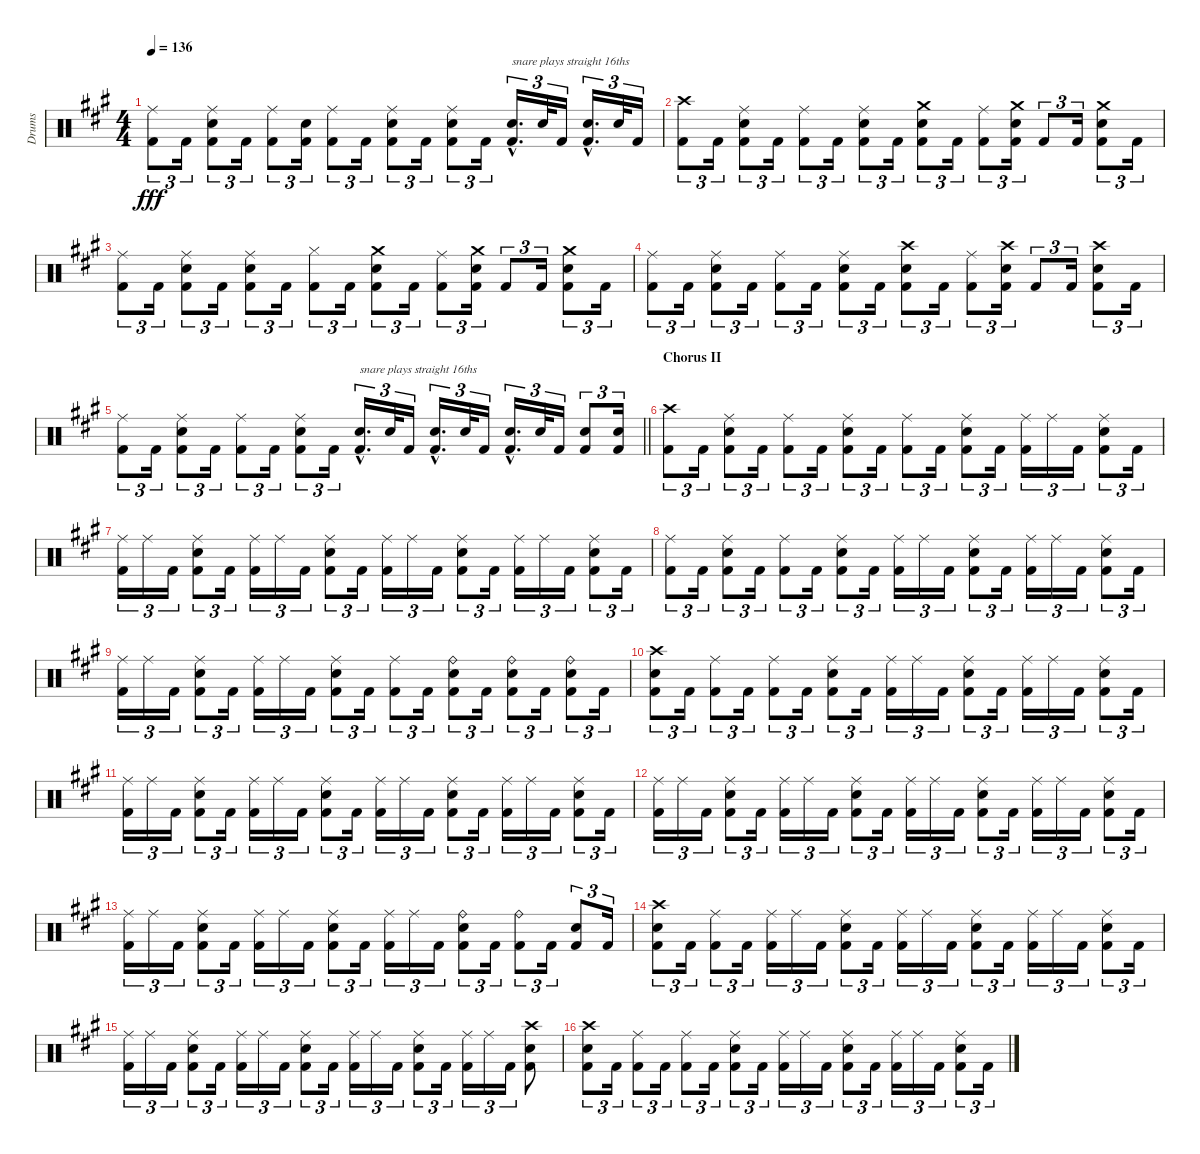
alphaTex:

\track ("Drums" "Drums") {instrument percussion}
\staff {score}
\articulation defaults
\ts (4 4)
\tempo 136
\clef neutral
\ks a
("Ride (middle)" "Kick (hit) 2").8{tu (3 2) dy fff} "Kick (hit) 2".16{tu (3 2)} ("Ride (middle)" "Snare (hit) 2" "Kick (hit) 2").8{tu (3 2)} "Kick (hit) 2".16{tu (3 2)} ("Ride (middle)" "Kick (hit) 2").8{tu (3 2)} ("Snare (hit) 2" "Kick (hit) 2").16{tu (3 2)} ("Ride (middle)" "Kick (hit) 2").8{tu (3 2)} "Kick (hit) 2".16{tu (3 2)} ("Ride (middle)" "Snare (hit) 2" "Kick (hit) 2").8{tu (3 2)} "Kick (hit) 2".16{tu (3 2)} ("Ride (middle)" "Snare (hit) 2" "Kick (hit) 2").8{tu (3 2)} "Kick (hit) 2".16{tu (3 2)} ("Snare (hit) 2"{hac} "Kick (hit) 2"{hac}).16{d tu (3 2) txt "snare plays straight 16ths"} "Snare (hit) 2".32{tu (3 2)} "Kick (hit) 2".16{tu (3 2)} ("Snare (hit) 2"{hac} "Kick (hit) 2"{hac}).16{d tu (3 2)} "Snare (hit) 2".32{tu (3 2)} "Kick (hit) 2".16{tu (3 2)} |
("Crash high (hit)" "Kick (hit) 2").8{tu (3 2)} "Kick (hit) 2".16{tu (3 2)} ("Ride (middle)" "Snare (hit) 2" "Kick (hit) 2").8{tu (3 2)} "Kick (hit) 2".16{tu (3 2)} ("Ride (middle)" "Kick (hit) 2").8{tu (3 2)} "Kick (hit) 2".16{tu (3 2)} ("Ride (middle)" "Snare (hit) 2" "Kick (hit) 2").8{tu (3 2)} "Kick (hit) 2".16{tu (3 2)} ("Crash medium (hit)" "Snare (hit) 2" "Kick (hit) 2").8{tu (3 2)} "Kick (hit) 2".16{tu (3 2)} ("Ride (middle)" "Kick (hit) 2").8{tu (3 2)} ("Crash medium (hit)" "Snare (hit) 2" "Kick (hit) 2").16{tu (3 2)} "Kick (hit) 2".8{tu (3 2)} "Kick (hit) 2".16{tu (3 2)} ("Crash medium (hit)" "Snare (hit) 2" "Kick (hit) 2").8{tu (3 2)} "Kick (hit) 2".16{tu (3 2)} |
("Ride (middle)" "Kick (hit) 2").8{tu (3 2)} "Kick (hit) 2".16{tu (3 2)} ("Ride (middle)" "Snare (hit) 2" "Kick (hit) 2").8{tu (3 2)} "Kick (hit) 2".16{tu (3 2)} ("Ride (middle)" "Snare (hit) 2" "Kick (hit) 2").8{tu (3 2)} "Kick (hit) 2".16{tu (3 2)} ("Hi-Hat (closed)" "Kick (hit) 2").8{tu (3 2)} "Kick (hit) 2".16{tu (3 2)} ("Crash medium (hit)" "Snare (hit) 2" "Kick (hit) 2").8{tu (3 2)} "Kick (hit) 2".16{tu (3 2)} ("Ride (middle)" "Kick (hit) 2").8{tu (3 2)} ("Crash medium (hit)" "Snare (hit) 2" "Kick (hit) 2").16{tu (3 2)} "Kick (hit) 2".8{tu (3 2)} "Kick (hit) 2".16{tu (3 2)} ("Crash medium (hit)" "Snare (hit) 2" "Kick (hit) 2").8{tu (3 2)} "Kick (hit) 2".16{tu (3 2)} |
("Ride (middle)" "Kick (hit) 2").8{tu (3 2)} "Kick (hit) 2".16{tu (3 2)} ("Ride (middle)" "Snare (hit) 2" "Kick (hit) 2").8{tu (3 2)} "Kick (hit) 2".16{tu (3 2)} ("Ride (middle)" "Kick (hit) 2").8{tu (3 2)} "Kick (hit) 2".16{tu (3 2)} ("Ride (middle)" "Snare (hit) 2" "Kick (hit) 2").8{tu (3 2)} "Kick (hit) 2".16{tu (3 2)} ("Crash high (hit)" "Snare (hit) 2" "Kick (hit) 2").8{tu (3 2)} "Kick (hit) 2".16{tu (3 2)} ("Ride (middle)" "Kick (hit) 2").8{tu (3 2)} ("Crash high (hit)" "Snare (hit) 2" "Kick (hit) 2").16{tu (3 2)} "Kick (hit) 2".8{tu (3 2)} "Kick (hit) 2".16{tu (3 2)} ("Crash high (hit)" "Snare (hit) 2" "Kick (hit) 2").8{tu (3 2)} "Kick (hit) 2".16{tu (3 2)} |
\barLineRight lightlight
("Ride (middle)" "Kick (hit) 2").8{tu (3 2)} "Kick (hit) 2".16{tu (3 2)} ("Ride (middle)" "Snare (hit) 2" "Kick (hit) 2").8{tu (3 2)} "Kick (hit) 2".16{tu (3 2)} ("Ride (middle)" "Kick (hit) 2").8{tu (3 2)} "Kick (hit) 2".16{tu (3 2)} ("Ride (middle)" "Snare (hit) 2" "Kick (hit) 2").8{tu (3 2)} "Kick (hit) 2".16{tu (3 2)} ("Snare (hit) 2"{hac} "Kick (hit) 2"{hac}).16{d tu (3 2) txt "snare plays straight 16ths"} "Snare (hit) 2".32{tu (3 2)} "Kick (hit) 2".16{tu (3 2)} ("Snare (hit) 2"{hac} "Kick (hit) 2"{hac}).16{d tu (3 2)} "Snare (hit) 2".32{tu (3 2)} "Kick (hit) 2".16{tu (3 2)} ("Snare (hit) 2"{hac} "Kick (hit) 2"{hac}).16{d tu (3 2)} "Snare (hit) 2".32{tu (3 2)} "Kick (hit) 2".16{tu (3 2)} ("Snare (hit) 2" "Kick (hit) 2").8{tu (3 2)} ("Snare (hit) 2" "Kick (hit) 2").16{tu (3 2)} |
\section ("" "Chorus II")
("Crash high (hit)" "Kick (hit) 2").8{tu (3 2)} "Kick (hit) 2".16{tu (3 2)} ("Ride (middle)" "Snare (hit) 2" "Kick (hit) 2").8{tu (3 2)} "Kick (hit) 2".16{tu (3 2)} ("Ride (middle)" "Kick (hit) 2").8{tu (3 2)} "Kick (hit) 2".16{tu (3 2)} ("Ride (middle)" "Snare (hit) 2" "Kick (hit) 2").8{tu (3 2)} "Kick (hit) 2".16{tu (3 2)} ("Ride (middle)" "Kick (hit) 2").8{tu (3 2)} "Kick (hit) 2".16{tu (3 2)} ("Ride (middle)" "Snare (hit) 2" "Kick (hit) 2").8{tu (3 2)} "Kick (hit) 2".16{tu (3 2)} ("Ride (middle)" "Kick (hit) 2").16{tu (3 2)} "Ride (middle)".16{tu (3 2)} "Kick (hit) 2".16{tu (3 2)} ("Ride (middle)" "Snare (hit) 2" "Kick (hit) 2").8{tu (3 2)} "Kick (hit) 2".16{tu (3 2)} |
("Ride (middle)" "Kick (hit) 2").16{tu (3 2)} "Ride (middle)".16{tu (3 2)} "Kick (hit) 2".16{tu (3 2)} ("Ride (middle)" "Snare (hit) 2" "Kick (hit) 2").8{tu (3 2)} "Kick (hit) 2".16{tu (3 2)} ("Ride (middle)" "Kick (hit) 2").16{tu (3 2)} "Ride (middle)".16{tu (3 2)} "Kick (hit) 2".16{tu (3 2)} ("Ride (middle)" "Snare (hit) 2" "Kick (hit) 2").8{tu (3 2)} "Kick (hit) 2".16{tu (3 2)} ("Ride (middle)" "Kick (hit) 2").16{tu (3 2)} "Ride (middle)".16{tu (3 2)} "Kick (hit) 2".16{tu (3 2)} ("Ride (middle)" "Snare (hit) 2" "Kick (hit) 2").8{tu (3 2)} "Kick (hit) 2".16{tu (3 2)} ("Ride (middle)" "Kick (hit) 2").16{tu (3 2)} "Ride (middle)".16{tu (3 2)} "Kick (hit) 2".16{tu (3 2)} ("Ride (middle)" "Snare (hit) 2" "Kick (hit) 2").8{tu (3 2)} "Kick (hit) 2".16{tu (3 2)} |
("Ride (middle)" "Kick (hit) 2").8{tu (3 2)} "Kick (hit) 2".16{tu (3 2)} ("Ride (middle)" "Snare (hit) 2" "Kick (hit) 2").8{tu (3 2)} "Kick (hit) 2".16{tu (3 2)} ("Ride (middle)" "Kick (hit) 2").8{tu (3 2)} "Kick (hit) 2".16{tu (3 2)} ("Ride (middle)" "Snare (hit) 2" "Kick (hit) 2").8{tu (3 2)} "Kick (hit) 2".16{tu (3 2)} ("Ride (middle)" "Kick (hit) 2").16{tu (3 2)} "Ride (middle)".16{tu (3 2)} "Kick (hit) 2".16{tu (3 2)} ("Ride (middle)" "Snare (hit) 2" "Kick (hit) 2").8{tu (3 2)} "Kick (hit) 2".16{tu (3 2)} ("Ride (middle)" "Kick (hit) 2").16{tu (3 2)} "Ride (middle)".16{tu (3 2)} "Kick (hit) 2".16{tu (3 2)} ("Ride (middle)" "Snare (hit) 2" "Kick (hit) 2").8{tu (3 2)} "Kick (hit) 2".16{tu (3 2)} |
("Ride (middle)" "Kick (hit) 2").16{tu (3 2)} "Ride (middle)".16{tu (3 2)} "Kick (hit) 2".16{tu (3 2)} ("Ride (middle)" "Snare (hit) 2" "Kick (hit) 2").8{tu (3 2)} "Kick (hit) 2".16{tu (3 2)} ("Ride (middle)" "Kick (hit) 2").16{tu (3 2)} "Ride (middle)".16{tu (3 2)} "Kick (hit) 2".16{tu (3 2)} ("Ride (middle)" "Snare (hit) 2" "Kick (hit) 2").8{tu (3 2)} "Kick (hit) 2".16{tu (3 2)} ("Ride (middle)" "Kick (hit) 2").8{tu (3 2)} "Kick (hit) 2".16{tu (3 2)} ("Ride (bell)" "Snare (hit) 2" "Kick (hit) 2").8{tu (3 2)} "Kick (hit) 2".16{tu (3 2)} ("Ride (bell)" "Snare (hit) 2" "Kick (hit) 2").8{tu (3 2)} "Kick (hit) 2".16{tu (3 2)} ("Ride (bell)" "Snare (hit) 2" "Kick (hit) 2").8{tu (3 2)} "Kick (hit) 2".16{tu (3 2)} |
("Crash high (hit)" "Snare (hit) 2" "Kick (hit) 2").8{tu (3 2)} "Kick (hit) 2".16{tu (3 2)} ("Ride (middle)" "Kick (hit) 2").8{tu (3 2)} "Kick (hit) 2".16{tu (3 2)} ("Ride (middle)" "Kick (hit) 2").8{tu (3 2)} "Kick (hit) 2".16{tu (3 2)} ("Ride (middle)" "Snare (hit) 2" "Kick (hit) 2").8{tu (3 2)} "Kick (hit) 2".16{tu (3 2)} ("Ride (middle)" "Kick (hit) 2").16{tu (3 2)} "Ride (middle)".16{tu (3 2)} "Kick (hit) 2".16{tu (3 2)} ("Ride (middle)" "Snare (hit) 2" "Kick (hit) 2").8{tu (3 2)} "Kick (hit) 2".16{tu (3 2)} ("Ride (middle)" "Kick (hit) 2").16{tu (3 2)} "Ride (middle)".16{tu (3 2)} "Kick (hit) 2".16{tu (3 2)} ("Ride (middle)" "Snare (hit) 2" "Kick (hit) 2").8{tu (3 2)} "Kick (hit) 2".16{tu (3 2)} |
("Ride (middle)" "Kick (hit) 2").16{tu (3 2)} "Ride (middle)".16{tu (3 2)} "Kick (hit) 2".16{tu (3 2)} ("Ride (middle)" "Snare (hit) 2" "Kick (hit) 2").8{tu (3 2)} "Kick (hit) 2".16{tu (3 2)} ("Ride (middle)" "Kick (hit) 2").16{tu (3 2)} "Ride (middle)".16{tu (3 2)} "Kick (hit) 2".16{tu (3 2)} ("Ride (middle)" "Snare (hit) 2" "Kick (hit) 2").8{tu (3 2)} "Kick (hit) 2".16{tu (3 2)} ("Ride (middle)" "Kick (hit) 2").16{tu (3 2)} "Ride (middle)".16{tu (3 2)} "Kick (hit) 2".16{tu (3 2)} ("Ride (middle)" "Snare (hit) 2" "Kick (hit) 2").8{tu (3 2)} "Kick (hit) 2".16{tu (3 2)} ("Ride (middle)" "Kick (hit) 2").16{tu (3 2)} "Ride (middle)".16{tu (3 2)} "Kick (hit) 2".16{tu (3 2)} ("Ride (middle)" "Snare (hit) 2" "Kick (hit) 2").8{tu (3 2)} "Kick (hit) 2".16{tu (3 2)} |
("Ride (middle)" "Kick (hit) 2").16{tu (3 2)} "Ride (middle)".16{tu (3 2)} "Kick (hit) 2".16{tu (3 2)} ("Ride (middle)" "Snare (hit) 2" "Kick (hit) 2").8{tu (3 2)} "Kick (hit) 2".16{tu (3 2)} ("Ride (middle)" "Kick (hit) 2").16{tu (3 2)} "Ride (middle)".16{tu (3 2)} "Kick (hit) 2".16{tu (3 2)} ("Ride (middle)" "Snare (hit) 2" "Kick (hit) 2").8{tu (3 2)} "Kick (hit) 2".16{tu (3 2)} ("Ride (middle)" "Kick (hit) 2").16{tu (3 2)} "Ride (middle)".16{tu (3 2)} "Kick (hit) 2".16{tu (3 2)} ("Ride (middle)" "Snare (hit) 2" "Kick (hit) 2").8{tu (3 2)} "Kick (hit) 2".16{tu (3 2)} ("Ride (middle)" "Kick (hit) 2").16{tu (3 2)} "Ride (middle)".16{tu (3 2)} "Kick (hit) 2".16{tu (3 2)} ("Ride (middle)" "Snare (hit) 2" "Kick (hit) 2").8{tu (3 2)} "Kick (hit) 2".16{tu (3 2)} |
("Ride (middle)" "Kick (hit) 2").16{tu (3 2)} "Ride (middle)".16{tu (3 2)} "Kick (hit) 2".16{tu (3 2)} ("Ride (middle)" "Snare (hit) 2" "Kick (hit) 2").8{tu (3 2)} "Kick (hit) 2".16{tu (3 2)} ("Ride (middle)" "Kick (hit) 2").16{tu (3 2)} "Ride (middle)".16{tu (3 2)} "Kick (hit) 2".16{tu (3 2)} ("Ride (middle)" "Snare (hit) 2" "Kick (hit) 2").8{tu (3 2)} "Kick (hit) 2".16{tu (3 2)} ("Ride (middle)" "Kick (hit) 2").16{tu (3 2)} "Ride (middle)".16{tu (3 2)} "Kick (hit) 2".16{tu (3 2)} ("Ride (bell)" "Snare (hit) 2" "Kick (hit) 2").8{tu (3 2)} "Kick (hit) 2".16{tu (3 2)} ("Ride (bell)" "Kick (hit) 2").8{tu (3 2)} "Kick (hit) 2".16{tu (3 2)} ("Snare (hit) 2" "Kick (hit) 2").8{tu (3 2)} "Kick (hit) 2".16{tu (3 2)} |
("Crash high (hit)" "Snare (hit) 2" "Kick (hit) 2").8{tu (3 2)} "Kick (hit) 2".16{tu (3 2)} ("Ride (middle)" "Kick (hit) 2").8{tu (3 2)} "Kick (hit) 2".16{tu (3 2)} ("Ride (middle)" "Kick (hit) 2").16{tu (3 2)} "Ride (middle)".16{tu (3 2)} "Kick (hit) 2".16{tu (3 2)} ("Ride (middle)" "Snare (hit) 2" "Kick (hit) 2").8{tu (3 2)} "Kick (hit) 2".16{tu (3 2)} ("Ride (middle)" "Kick (hit) 2").16{tu (3 2)} "Ride (middle)".16{tu (3 2)} "Kick (hit) 2".16{tu (3 2)} ("Ride (middle)" "Snare (hit) 2" "Kick (hit) 2").8{tu (3 2)} "Kick (hit) 2".16{tu (3 2)} ("Ride (middle)" "Kick (hit) 2").16{tu (3 2)} "Ride (middle)".16{tu (3 2)} "Kick (hit) 2".16{tu (3 2)} ("Ride (middle)" "Snare (hit) 2" "Kick (hit) 2").8{tu (3 2)} "Kick (hit) 2".16{tu (3 2)} |
("Ride (middle)" "Kick (hit) 2").16{tu (3 2)} "Ride (middle)".16{tu (3 2)} "Kick (hit) 2".16{tu (3 2)} ("Ride (middle)" "Snare (hit) 2" "Kick (hit) 2").8{tu (3 2)} "Kick (hit) 2".16{tu (3 2)} ("Ride (middle)" "Kick (hit) 2").16{tu (3 2)} "Ride (middle)".16{tu (3 2)} "Kick (hit) 2".16{tu (3 2)} ("Ride (middle)" "Snare (hit) 2" "Kick (hit) 2").8{tu (3 2)} "Kick (hit) 2".16{tu (3 2)} ("Ride (middle)" "Kick (hit) 2").16{tu (3 2)} "Ride (middle)".16{tu (3 2)} "Kick (hit) 2".16{tu (3 2)} ("Ride (middle)" "Snare (hit) 2" "Kick (hit) 2").8{tu (3 2)} "Kick (hit) 2".16{tu (3 2)} ("Ride (middle)" "Kick (hit) 2").16{tu (3 2)} "Ride (middle)".16{tu (3 2)} "Kick (hit) 2".16{tu (3 2)} ("Crash high (hit)" "Snare (hit) 2" "Kick (hit) 2").8 |
("Crash high (hit)" "Snare (hit) 2" "Kick (hit) 2").8{tu (3 2)} "Kick (hit) 2".16{tu (3 2)} ("Ride (middle)" "Kick (hit) 2").8{tu (3 2)} "Kick (hit) 2".16{tu (3 2)} ("Ride (middle)" "Kick (hit) 2").8{tu (3 2)} "Kick (hit) 2".16{tu (3 2)} ("Ride (middle)" "Snare (hit) 2" "Kick (hit) 2").8{tu (3 2)} "Kick (hit) 2".16{tu (3 2)} ("Ride (middle)" "Kick (hit) 2").16{tu (3 2)} "Ride (middle)".16{tu (3 2)} "Kick (hit) 2".16{tu (3 2)} ("Ride (middle)" "Snare (hit) 2" "Kick (hit) 2").8{tu (3 2)} "Kick (hit) 2".16{tu (3 2)} ("Ride (middle)" "Kick (hit) 2").16{tu (3 2)} "Ride (middle)".16{tu (3 2)} "Kick (hit) 2".16{tu (3 2)} ("Ride (middle)" "Snare (hit) 2" "Kick (hit) 2").8{tu (3 2)} "Kick (hit) 2".16{tu (3 2)}
